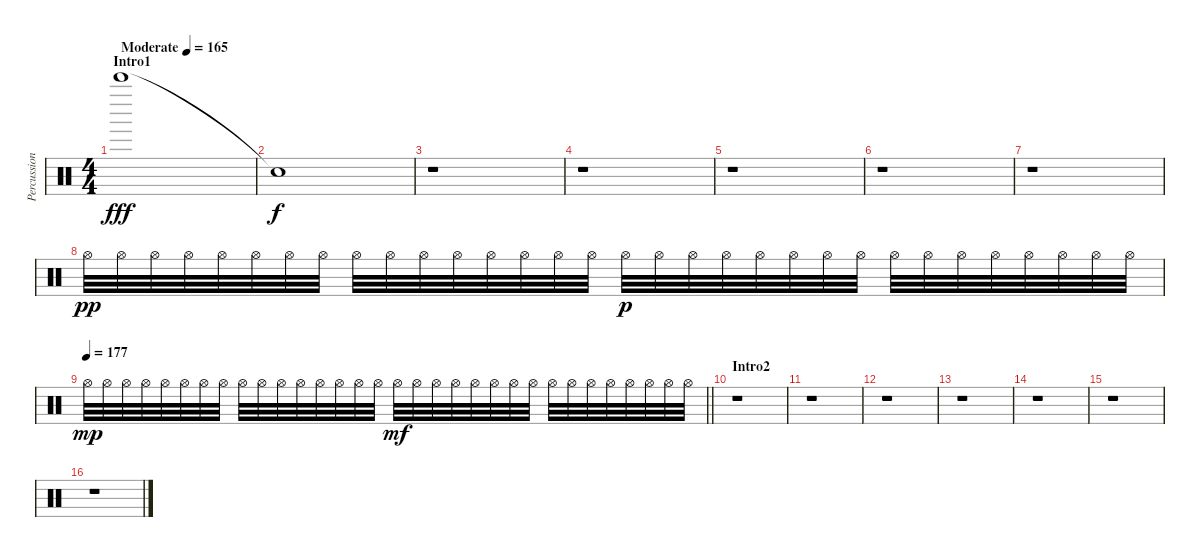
\track ("Percussion" "Percussion") {instrument percussion}
\staff {score}
\articulation defaults
\ts (4 4)
\section ("" "Intro1")
\tempo (165 "Moderate")
\clef neutral
\ks c "Bell Tree (hit)".1{dy fff}
|
"Snare (hit)"{t}.1{dy f} |
r.1 |
r.1 |
r.1 |
r.1 |
r.1 |
"Hi-Hat (open)".32{dy pp} "Hi-Hat (open)".32 "Hi-Hat (open)".32 "Hi-Hat (open)".32 "Hi-Hat (open)".32 "Hi-Hat (open)".32 "Hi-Hat (open)".32 "Hi-Hat (open)".32 "Hi-Hat (open)".32 "Hi-Hat (open)".32 "Hi-Hat (open)".32 "Hi-Hat (open)".32 "Hi-Hat (open)".32 "Hi-Hat (open)".32 "Hi-Hat (open)".32 "Hi-Hat (open)".32 "Hi-Hat (open)".32{dy p} "Hi-Hat (open)".32 "Hi-Hat (open)".32 "Hi-Hat (open)".32 "Hi-Hat (open)".32 "Hi-Hat (open)".32 "Hi-Hat (open)".32 "Hi-Hat (open)".32 "Hi-Hat (open)".32 "Hi-Hat (open)".32 "Hi-Hat (open)".32 "Hi-Hat (open)".32 "Hi-Hat (open)".32 "Hi-Hat (open)".32 "Hi-Hat (open)".32 "Hi-Hat (open)".32 |
\tempo 177
\barLineRight lightlight "Hi-Hat (open)".32{dy mp} "Hi-Hat (open)".32 "Hi-Hat (open)".32 "Hi-Hat (open)".32 "Hi-Hat (open)".32 "Hi-Hat (open)".32 "Hi-Hat (open)".32 "Hi-Hat (open)".32 "Hi-Hat (open)".32 "Hi-Hat (open)".32 "Hi-Hat (open)".32 "Hi-Hat (open)".32 "Hi-Hat (open)".32 "Hi-Hat (open)".32 "Hi-Hat (open)".32 "Hi-Hat (open)".32 "Hi-Hat (open)".32{dy mf} "Hi-Hat (open)".32 "Hi-Hat (open)".32 "Hi-Hat (open)".32 "Hi-Hat (open)".32 "Hi-Hat (open)".32 "Hi-Hat (open)".32 "Hi-Hat (open)".32 "Hi-Hat (open)".32 "Hi-Hat (open)".32 "Hi-Hat (open)".32 "Hi-Hat (open)".32 "Hi-Hat (open)".32 "Hi-Hat (open)".32 "Hi-Hat (open)".32 "Hi-Hat (open)".32
|
\section ("" "Intro2")
r.1 |
r.1 |
r.1 |
r.1 |
r.1 |
r.1 |
r.1
